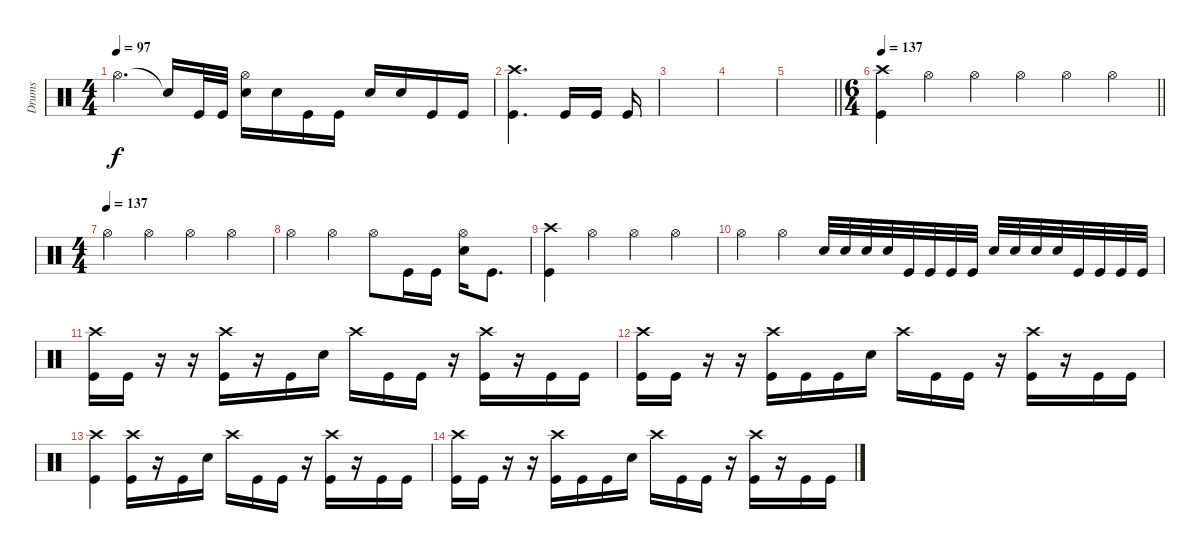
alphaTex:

\track ("Drums" "Drums") {instrument percussion}
\staff
\articulation defaults
\ts (4 4)
\tempo 97
\clef neutral
\ks c "Hi-Hat (open)".4{d dy f} "Snare (hit)"{t}.16 "Kick (hit)".32 "Kick (hit)".32
("Hi-Hat (open)" "Electric Snare (hit)").16 "Electric Snare (hit)".16 "Kick (hit)".16 "Kick (hit)".16 "Electric Snare (hit)".16 "Electric Snare (hit)".16 "Kick (hit)".16 "Kick (hit)".16 |
("Crash high (hit)" "Kick (hit)").4{d} "Kick (hit)".16 "Kick (hit)".16 "Kick (hit)".16 |
|
|
\barLineRight lightlight
|
\ts (6 4)
\tempo 137
\barLineRight lightlight
("Crash high (hit)" "Kick (hit)").4 "Hi-Hat (open)".4 "Hi-Hat (open)".4 "Hi-Hat (open)".4 "Hi-Hat (open)".4 "Hi-Hat (open)".4 |
\ts (4 4)
\section ("" "")
\tempo (137)
"Hi-Hat (open)".4 "Hi-Hat (open)".4 "Hi-Hat (open)".4 "Hi-Hat (open)".4 |
"Hi-Hat (open)".4 "Hi-Hat (open)".4 "Hi-Hat (open)".8 "Kick (hit)".16 "Kick (hit)".16 ("Hi-Hat (open)" "Electric Snare (hit)").16 "Kick (hit)".8{d} |
("Crash high (hit)" "Kick (hit)").4 "Hi-Hat (open)".4 "Hi-Hat (open)".4 "Hi-Hat (open)".4 |
"Hi-Hat (open)".4 "Hi-Hat (open)".4 "Electric Snare (hit)".32 "Electric Snare (hit)".32 "Electric Snare (hit)".32 "Electric Snare (hit)".32 "Kick (hit)".32 "Kick (hit)".32 "Kick (hit)".32 "Kick (hit)".32 "Electric Snare (hit)".32 "Electric Snare (hit)".32 "Electric Snare (hit)".32 "Electric Snare (hit)".32 "Kick (hit)".32 "Kick (hit)".32 "Kick (hit)".32 "Kick (hit)".32 |
("Crash high (hit)" "Kick (hit)").16 "Kick (hit)".16 r.16 r.16 ("Crash high (hit)" "Kick (hit)").16 r.16 "Kick (hit)".16 "Electric Snare (hit)".16 "Crash high (hit)".16 "Kick (hit)".16 "Kick (hit)".16 r.16 ("Crash high (hit)" "Kick (hit)").16 r.16 "Kick (hit)".16 "Kick (hit)".16 |
("Crash high (hit)" "Kick (hit)").16 "Kick (hit)".16 r.16 r.16 ("Crash high (hit)" "Kick (hit)").16 "Kick (hit)".16 "Kick (hit)".16 "Electric Snare (hit)".16 "Crash high (hit)".16 "Kick (hit)".16 "Kick (hit)".16 r.16 ("Crash high (hit)" "Kick (hit)").16 r.16 "Kick (hit)".16 "Kick (hit)".16 |
("Crash high (hit)" "Kick (hit)").4 ("Crash high (hit)" "Kick (hit)").16 r.16 "Kick (hit)".16 "Electric Snare (hit)".16 "Crash high (hit)".16 "Kick (hit)".16 "Kick (hit)".16 r.16 ("Crash high (hit)" "Kick (hit)").16 r.16 "Kick (hit)".16 "Kick (hit)".16 |
("Crash high (hit)" "Kick (hit)").16 "Kick (hit)".16 r.16 r.16 ("Crash high (hit)" "Kick (hit)").16 "Kick (hit)".16 "Kick (hit)".16 "Electric Snare (hit)".16 "Crash high (hit)".16 "Kick (hit)".16 "Kick (hit)".16 r.16 ("Crash high (hit)" "Kick (hit)").16 r.16 "Kick (hit)".16 "Kick (hit)".16
